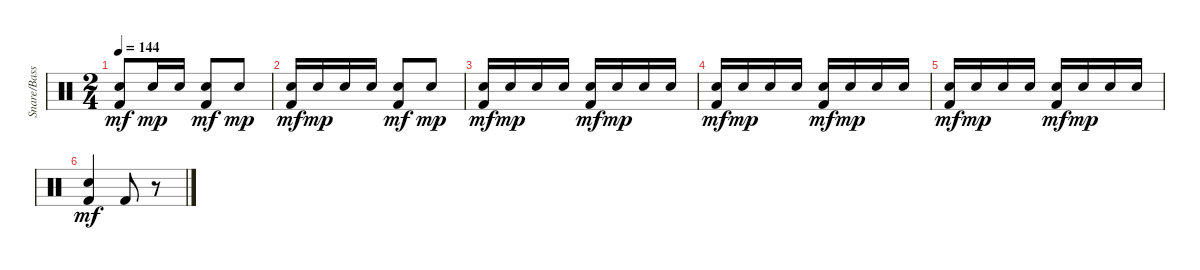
\track ("Snare/Bass Dr       " "Snare/Bass") {instrument percussion}
\staff {score}
\articulation defaults
\ts (2 4)
\tempo 144
\clef neutral
\ks c
("Snare (hit) 2" "Kick (hit) 2").8{dy mf} "Snare (hit) 2".16{dy mp} "Snare (hit) 2".16 ("Snare (hit) 2" "Kick (hit) 2").8{dy mf} "Snare (hit) 2".8{dy mp} |
("Snare (hit) 2" "Kick (hit) 2").16{dy mf} "Snare (hit) 2".16{dy mp} "Snare (hit) 2".16 "Snare (hit) 2".16 ("Snare (hit) 2" "Kick (hit) 2").8{dy mf} "Snare (hit) 2".8{dy mp} |
("Snare (hit) 2" "Kick (hit) 2").16{dy mf} "Snare (hit) 2".16{dy mp} "Snare (hit) 2".16 "Snare (hit) 2".16 ("Snare (hit) 2" "Kick (hit) 2").16{dy mf} "Snare (hit) 2".16{dy mp} "Snare (hit) 2".16 "Snare (hit) 2".16 |
("Snare (hit) 2" "Kick (hit) 2").16{dy mf} "Snare (hit) 2".16{dy mp} "Snare (hit) 2".16 "Snare (hit) 2".16 ("Snare (hit) 2" "Kick (hit) 2").16{dy mf} "Snare (hit) 2".16{dy mp} "Snare (hit) 2".16 "Snare (hit) 2".16 |
("Snare (hit) 2" "Kick (hit) 2").16{dy mf} "Snare (hit) 2".16{dy mp} "Snare (hit) 2".16 "Snare (hit) 2".16 ("Snare (hit) 2" "Kick (hit) 2").16{dy mf} "Snare (hit) 2".16{dy mp} "Snare (hit) 2".16 "Snare (hit) 2".16 |
("Snare (hit) 2" "Kick (hit) 2").4{dy mf} "Kick (hit) 2".8 r.8
